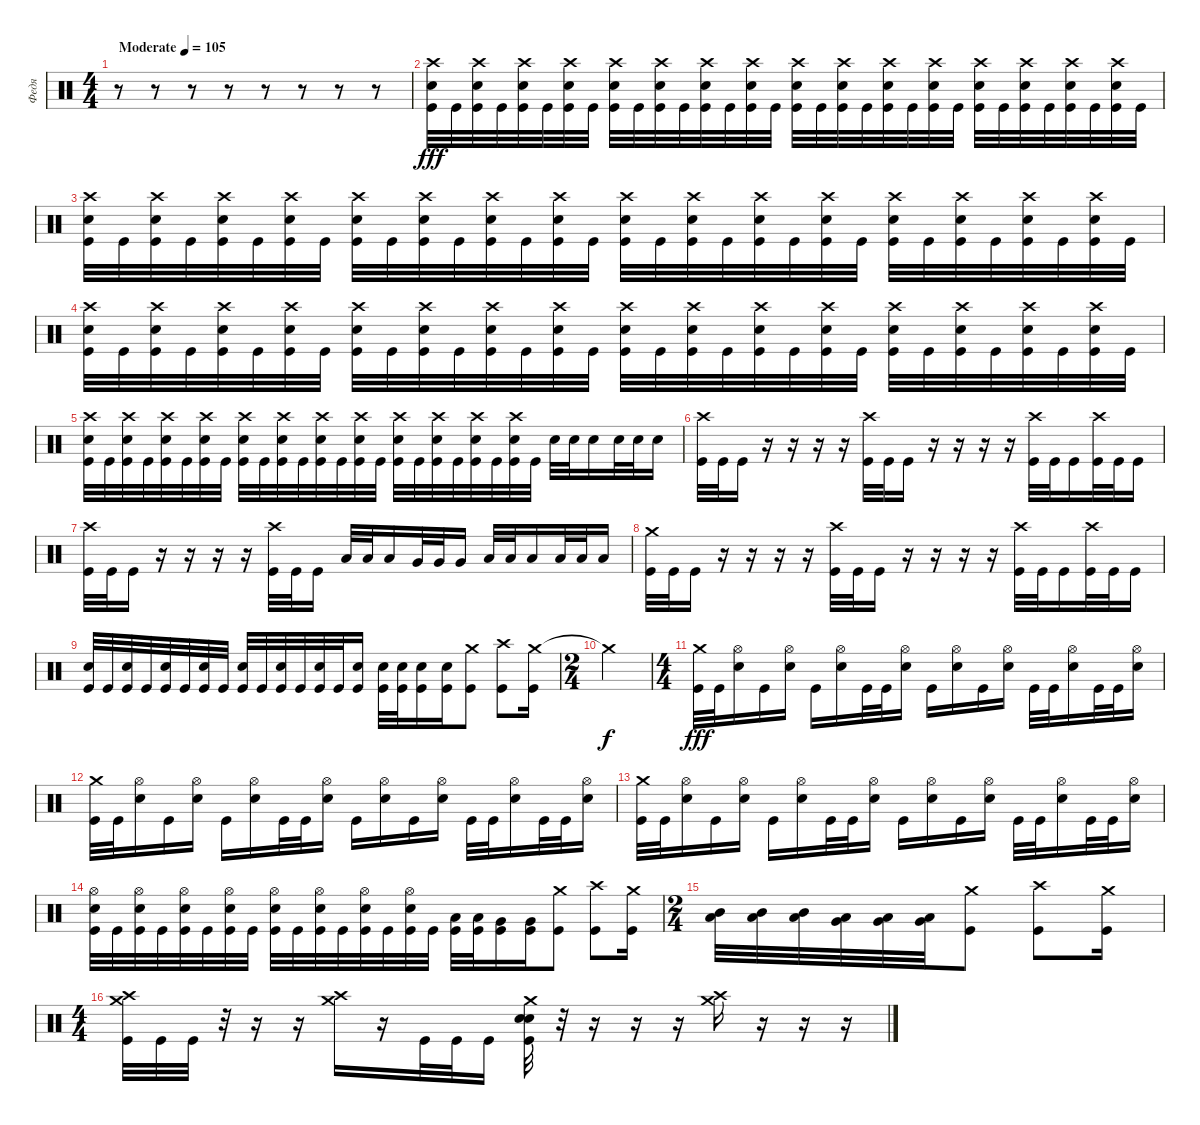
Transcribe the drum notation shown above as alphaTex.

\track ("Федя" "Федя") {instrument percussion}
\staff {score}
\articulation defaults
\ts (4 4)
\tempo (105 "Moderate")
\clef neutral
\ks c
r.8{dy fff} r.8 r.8 r.8 r.8 r.8 r.8 r.8 |
("Crash high (hit)" "Snare (hit) 2" "Kick (hit)").32 "Kick (hit)".32 ("Crash high (hit)" "Snare (hit) 2" "Kick (hit)").32 "Kick (hit)".32 ("Crash high (hit)" "Snare (hit) 2" "Kick (hit)").32 "Kick (hit)".32 ("Crash high (hit)" "Snare (hit) 2" "Kick (hit)").32 "Kick (hit)".32 ("Crash high (hit)" "Snare (hit) 2" "Kick (hit)").32 "Kick (hit)".32 ("Crash high (hit)" "Snare (hit) 2" "Kick (hit)").32 "Kick (hit)".32 ("Crash high (hit)" "Snare (hit) 2" "Kick (hit)").32 "Kick (hit)".32 ("Crash high (hit)" "Snare (hit) 2" "Kick (hit)").32 "Kick (hit)".32 ("Crash high (hit)" "Snare (hit) 2" "Kick (hit)").32 "Kick (hit)".32 ("Crash high (hit)" "Snare (hit) 2" "Kick (hit)").32 "Kick (hit)".32 ("Crash high (hit)" "Snare (hit) 2" "Kick (hit)").32 "Kick (hit)".32 ("Crash high (hit)" "Snare (hit) 2" "Kick (hit)").32 "Kick (hit)".32 ("Crash high (hit)" "Snare (hit) 2" "Kick (hit)").32 "Kick (hit)".32 ("Crash high (hit)" "Snare (hit) 2" "Kick (hit)").32 "Kick (hit)".32 ("Crash high (hit)" "Snare (hit) 2" "Kick (hit)").32 "Kick (hit)".32 ("Crash high (hit)" "Snare (hit) 2" "Kick (hit)").32 "Kick (hit)".32 |
("Crash high (hit)" "Snare (hit) 2" "Kick (hit)").32 "Kick (hit)".32 ("Crash high (hit)" "Snare (hit) 2" "Kick (hit)").32 "Kick (hit)".32 ("Crash high (hit)" "Snare (hit) 2" "Kick (hit)").32 "Kick (hit)".32 ("Crash high (hit)" "Snare (hit) 2" "Kick (hit)").32 "Kick (hit)".32 ("Crash high (hit)" "Snare (hit) 2" "Kick (hit)").32 "Kick (hit)".32 ("Crash high (hit)" "Snare (hit) 2" "Kick (hit)").32 "Kick (hit)".32 ("Crash high (hit)" "Snare (hit) 2" "Kick (hit)").32 "Kick (hit)".32 ("Crash high (hit)" "Snare (hit) 2" "Kick (hit)").32 "Kick (hit)".32 ("Crash high (hit)" "Snare (hit) 2" "Kick (hit)").32 "Kick (hit)".32 ("Crash high (hit)" "Snare (hit) 2" "Kick (hit)").32 "Kick (hit)".32 ("Crash high (hit)" "Snare (hit) 2" "Kick (hit)").32 "Kick (hit)".32 ("Crash high (hit)" "Snare (hit) 2" "Kick (hit)").32 "Kick (hit)".32 ("Crash high (hit)" "Snare (hit) 2" "Kick (hit)").32 "Kick (hit)".32 ("Crash high (hit)" "Snare (hit) 2" "Kick (hit)").32 "Kick (hit)".32 ("Crash high (hit)" "Snare (hit) 2" "Kick (hit)").32 "Kick (hit)".32 ("Crash high (hit)" "Snare (hit) 2" "Kick (hit)").32 "Kick (hit)".32 |
("Crash high (hit)" "Snare (hit) 2" "Kick (hit)").32 "Kick (hit)".32 ("Crash high (hit)" "Snare (hit) 2" "Kick (hit)").32 "Kick (hit)".32 ("Crash high (hit)" "Snare (hit) 2" "Kick (hit)").32 "Kick (hit)".32 ("Crash high (hit)" "Snare (hit) 2" "Kick (hit)").32 "Kick (hit)".32 ("Crash high (hit)" "Snare (hit) 2" "Kick (hit)").32 "Kick (hit)".32 ("Crash high (hit)" "Snare (hit) 2" "Kick (hit)").32 "Kick (hit)".32 ("Crash high (hit)" "Snare (hit) 2" "Kick (hit)").32 "Kick (hit)".32 ("Crash high (hit)" "Snare (hit) 2" "Kick (hit)").32 "Kick (hit)".32 ("Crash high (hit)" "Snare (hit) 2" "Kick (hit)").32 "Kick (hit)".32 ("Crash high (hit)" "Snare (hit) 2" "Kick (hit)").32 "Kick (hit)".32 ("Crash high (hit)" "Snare (hit) 2" "Kick (hit)").32 "Kick (hit)".32 ("Crash high (hit)" "Snare (hit) 2" "Kick (hit)").32 "Kick (hit)".32 ("Crash high (hit)" "Snare (hit) 2" "Kick (hit)").32 "Kick (hit)".32 ("Crash high (hit)" "Snare (hit) 2" "Kick (hit)").32 "Kick (hit)".32 ("Crash high (hit)" "Snare (hit) 2" "Kick (hit)").32 "Kick (hit)".32 ("Crash high (hit)" "Snare (hit) 2" "Kick (hit)").32 "Kick (hit)".32 |
("Crash high (hit)" "Snare (hit) 2" "Kick (hit)").32 "Kick (hit)".32 ("Crash high (hit)" "Snare (hit) 2" "Kick (hit)").32 "Kick (hit)".32 ("Crash high (hit)" "Snare (hit) 2" "Kick (hit)").32 "Kick (hit)".32 ("Crash high (hit)" "Snare (hit) 2" "Kick (hit)").32 "Kick (hit)".32 ("Crash high (hit)" "Snare (hit) 2" "Kick (hit)").32 "Kick (hit)".32 ("Crash high (hit)" "Snare (hit) 2" "Kick (hit)").32 "Kick (hit)".32 ("Crash high (hit)" "Snare (hit) 2" "Kick (hit)").32 "Kick (hit)".32 ("Crash high (hit)" "Snare (hit) 2" "Kick (hit)").32 "Kick (hit)".32 ("Crash high (hit)" "Snare (hit) 2" "Kick (hit)").32 "Kick (hit)".32 ("Crash high (hit)" "Snare (hit) 2" "Kick (hit)").32 "Kick (hit)".32 ("Crash high (hit)" "Snare (hit) 2" "Kick (hit)").32 "Kick (hit)".32 ("Crash high (hit)" "Snare (hit) 2" "Kick (hit)").32 "Kick (hit)".32 "Snare (hit) 2".32 "Snare (hit) 2".32 "Snare (hit) 2".16 "Snare (hit) 2".32 "Snare (hit) 2".32 "Snare (hit) 2".16 |
("Crash high (hit)" "Kick (hit)").32 "Kick (hit)".32 "Kick (hit)".16 r.16 r.16 r.16 r.16 ("Crash high (hit)" "Kick (hit)").32 "Kick (hit)".32 "Kick (hit)".16 r.16 r.16 r.16 r.16 ("Crash high (hit)" "Kick (hit)").32 "Kick (hit)".32 "Kick (hit)".16 ("Crash high (hit)" "Kick (hit)").32 "Kick (hit)".32 "Kick (hit)".16 |
("Crash high (hit)" "Kick (hit)").32 "Kick (hit)".32 "Kick (hit)".16 r.16 r.16 r.16 r.16 ("Crash high (hit)" "Kick (hit)").32 "Kick (hit)".32 "Kick (hit)".16 "Low Tom (hit)".32 "Low Tom (hit)".32 "Low Tom (hit)".16 "Very Low Tom (hit)".32 "Very Low Tom (hit)".32 "Very Low Tom (hit)".16 "Low Tom (hit)".32 "Low Tom (hit)".32 "Low Tom (hit)".16 "Low Floor Tom (hit)".32 "Low Floor Tom (hit)".32 "Low Floor Tom (hit)".16 |
("Crash medium (hit)" "Kick (hit)").32 "Kick (hit)".32 "Kick (hit)".16 r.16 r.16 r.16 r.16 ("Crash high (hit)" "Kick (hit)").32 "Kick (hit)".32 "Kick (hit)".16 r.16 r.16 r.16 r.16 ("Crash high (hit)" "Kick (hit)").32 "Kick (hit)".32 "Kick (hit)".16 ("Crash high (hit)" "Kick (hit)").32 "Kick (hit)".32 "Kick (hit)".16 |
("Snare (hit) 2" "Kick (hit)").32 "Kick (hit)".32 ("Snare (hit) 2" "Kick (hit)").32 "Kick (hit)".32 ("Snare (hit) 2" "Kick (hit)").32 "Kick (hit)".32 ("Snare (hit) 2" "Kick (hit)").32 "Kick (hit)".32 ("Snare (hit) 2" "Kick (hit)").32 "Kick (hit)".32 ("Snare (hit) 2" "Kick (hit)").32 "Kick (hit)".32 ("Snare (hit) 2" "Kick (hit)").32 "Kick (hit)".32 ("Snare (hit) 2" "Kick (hit)").16 ("Snare (hit) 2" "Kick (hit)").32 ("Snare (hit) 2" "Kick (hit)").32 ("Snare (hit) 2" "Kick (hit)").16 ("Snare (hit) 2" "Kick (hit)").16 ("Crash medium (hit)" "Kick (hit)").8 ("Crash high (hit)" "Kick (hit)").8 ("Crash medium (hit)" "Kick (hit)").16 |
\ts (2 4)
"Crash medium (hit)"{t}.2{dy f} |
\ts (4 4)
("Crash medium (hit)" "Kick (hit)").32{dy fff} "Kick (hit)".32 ("Hi-Hat (open)" "Snare (hit) 2").16 "Kick (hit)".16 ("Hi-Hat (open)" "Snare (hit) 2").16 "Kick (hit)".16 ("Hi-Hat (open)" "Snare (hit) 2").16 "Kick (hit)".32 "Kick (hit)".32 ("Hi-Hat (open)" "Snare (hit) 2").16 "Kick (hit)".16 ("Hi-Hat (open)" "Snare (hit) 2").16 "Kick (hit)".16 ("Hi-Hat (open)" "Snare (hit) 2").16 "Kick (hit)".32 "Kick (hit)".32 ("Hi-Hat (open)" "Snare (hit) 2").16 "Kick (hit)".32 "Kick (hit)".32 ("Hi-Hat (open)" "Snare (hit) 2").16 |
("Crash medium (hit)" "Kick (hit)").32 "Kick (hit)".32 ("Hi-Hat (open)" "Snare (hit) 2").16 "Kick (hit)".16 ("Hi-Hat (open)" "Snare (hit) 2").16 "Kick (hit)".16 ("Hi-Hat (open)" "Snare (hit) 2").16 "Kick (hit)".32 "Kick (hit)".32 ("Hi-Hat (open)" "Snare (hit) 2").16 "Kick (hit)".16 ("Hi-Hat (open)" "Snare (hit) 2").16 "Kick (hit)".16 ("Hi-Hat (open)" "Snare (hit) 2").16 "Kick (hit)".32 "Kick (hit)".32 ("Hi-Hat (open)" "Snare (hit) 2").16 "Kick (hit)".32 "Kick (hit)".32 ("Hi-Hat (open)" "Snare (hit) 2").16 |
("Crash medium (hit)" "Kick (hit)").32 "Kick (hit)".32 ("Hi-Hat (open)" "Snare (hit) 2").16 "Kick (hit)".16 ("Hi-Hat (open)" "Snare (hit) 2").16 "Kick (hit)".16 ("Hi-Hat (open)" "Snare (hit) 2").16 "Kick (hit)".32 "Kick (hit)".32 ("Hi-Hat (open)" "Snare (hit) 2").16 "Kick (hit)".16 ("Hi-Hat (open)" "Snare (hit) 2").16 "Kick (hit)".16 ("Hi-Hat (open)" "Snare (hit) 2").16 "Kick (hit)".32 "Kick (hit)".32 ("Hi-Hat (open)" "Snare (hit) 2").16 "Kick (hit)".32 "Kick (hit)".32 ("Hi-Hat (open)" "Snare (hit) 2").16 |
("Hi-Hat (open)" "Snare (hit) 2" "Kick (hit)").32 "Kick (hit)".32 ("Hi-Hat (open)" "Snare (hit) 2" "Kick (hit)").32 "Kick (hit)".32 ("Hi-Hat (open)" "Snare (hit) 2" "Kick (hit)").32 "Kick (hit)".32 ("Hi-Hat (open)" "Snare (hit) 2" "Kick (hit)").32 "Kick (hit)".32 ("Hi-Hat (open)" "Snare (hit) 2" "Kick (hit)").32 "Kick (hit)".32 ("Hi-Hat (open)" "Snare (hit) 2" "Kick (hit)").32 "Kick (hit)".32 ("Hi-Hat (open)" "Snare (hit) 2" "Kick (hit)").32 "Kick (hit)".32 ("Hi-Hat (open)" "Snare (hit) 2" "Kick (hit)").32 "Kick (hit)".32 ("Low Tom (hit)" "Kick (hit)").32 ("Low Tom (hit)" "Kick (hit)").32 ("Very Low Tom (hit)" "Kick (hit)").16 ("Very Low Tom (hit)" "Kick (hit)").16 ("Crash medium (hit)" "Kick (hit)").8 ("Crash high (hit)" "Kick (hit)").8 ("Crash medium (hit)" "Kick (hit)").16 |
\ts (2 4)
("Mid Tom (hit)" "Low Tom (hit)").32 ("Mid Tom (hit)" "Low Tom (hit)").32 ("Mid Tom (hit)" "Low Tom (hit)").32 ("Low Tom (hit)" "Very Low Tom (hit)").32 ("Low Tom (hit)" "Very Low Tom (hit)").32 ("Low Tom (hit)" "Very Low Tom (hit)").32 ("Crash medium (hit)" "Kick (hit)").8 ("Crash high (hit)" "Kick (hit)").8 ("Crash medium (hit)" "Kick (hit)").16 |
\ts (4 4)
("Crash medium (hit)" "Crash high (hit)" "Kick (hit)").32 "Kick (hit)".32 "Kick (hit)".32 r.32 r.16 r.16 ("Crash medium (hit)" "Crash high (hit)").16 r.16 "Kick (hit)".32 "Kick (hit)".32 "Kick (hit)".16 ("Crash medium (hit)" "Electric Snare (hit)" "Snare (hit) 2" "Kick (hit)").32 r.32 r.16 r.16 r.16 ("Crash medium (hit)" "Crash high (hit)").16 r.16 r.16 r.16
